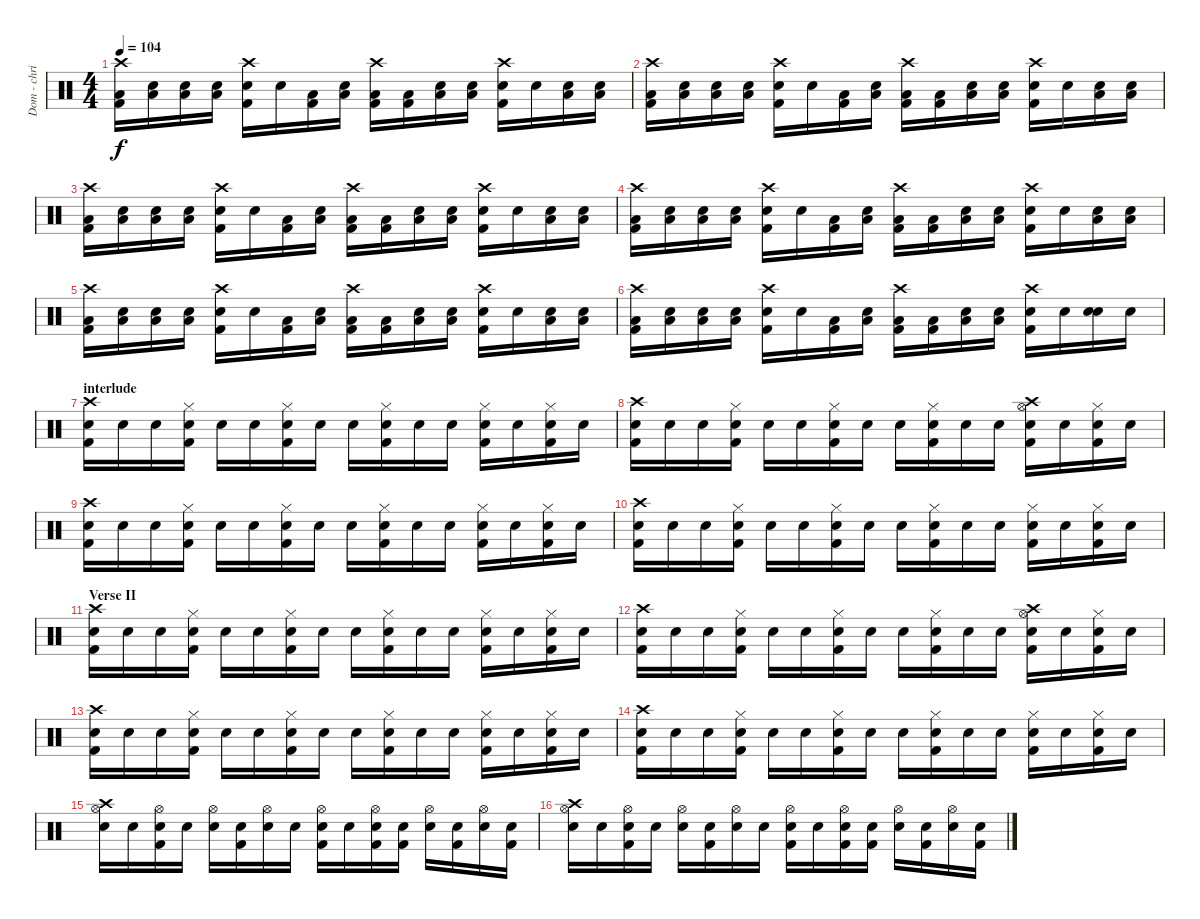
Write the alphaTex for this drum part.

\track ("Dom - chris" "Dom - chri") {instrument percussion}
\staff {score}
\articulation defaults
\ts (4 4)
\tempo 104
\clef neutral
\ks c
("Crash high (hit)" "Low Tom (hit)" "Kick (hit) 2").16{dy f} ("Low Floor Tom (hit)" "Snare (hit)"{x}).16 ("Low Tom (hit)" "Snare (hit)"{x}).16 ("Low Floor Tom (hit)" "Snare (hit)"{x}).16 ("Crash high (hit)" "Snare (hit) 2" "Kick (hit) 2").16 "Snare (hit)"{x}.16 ("Low Tom (hit)" "Kick (hit) 2").16 ("Low Floor Tom (hit)" "Snare (hit)"{x}).16 ("Crash high (hit)" "Low Tom (hit)" "Kick (hit) 2").16 ("Low Floor Tom (hit)" "Kick (hit) 2"{x}).16 ("Low Tom (hit)" "Snare (hit)"{x}).16 ("Low Floor Tom (hit)" "Snare (hit)"{x}).16 ("Crash high (hit)" "Snare (hit) 2" "Kick (hit) 2").16 "Snare (hit)"{x}.16 ("Low Tom (hit)" "Snare (hit)"{x}).16 ("Low Floor Tom (hit)" "Snare (hit)"{x}).16 |
("Crash high (hit)" "Low Tom (hit)" "Kick (hit) 2").16 ("Low Floor Tom (hit)" "Snare (hit)"{x}).16 ("Low Tom (hit)" "Snare (hit)"{x}).16 ("Low Floor Tom (hit)" "Snare (hit)"{x}).16 ("Crash high (hit)" "Snare (hit) 2" "Kick (hit) 2").16 "Snare (hit)"{x}.16 ("Low Tom (hit)" "Kick (hit) 2").16 ("Low Floor Tom (hit)" "Snare (hit)"{x}).16 ("Crash high (hit)" "Low Tom (hit)" "Kick (hit) 2").16 ("Low Floor Tom (hit)" "Kick (hit) 2"{x}).16 ("Low Tom (hit)" "Snare (hit)"{x}).16 ("Low Floor Tom (hit)" "Snare (hit)"{x}).16 ("Crash high (hit)" "Snare (hit) 2" "Kick (hit) 2").16 "Snare (hit)"{x}.16 ("Low Tom (hit)" "Snare (hit)"{x}).16 ("Low Floor Tom (hit)" "Snare (hit)"{x}).16 |
("Crash high (hit)" "Low Tom (hit)" "Kick (hit) 2").16 ("Low Floor Tom (hit)" "Snare (hit)"{x}).16 ("Low Tom (hit)" "Snare (hit)"{x}).16 ("Low Floor Tom (hit)" "Snare (hit)"{x}).16 ("Crash high (hit)" "Snare (hit) 2" "Kick (hit) 2").16 "Snare (hit)"{x}.16 ("Low Tom (hit)" "Kick (hit) 2").16 ("Low Floor Tom (hit)" "Snare (hit)"{x}).16 ("Crash high (hit)" "Low Tom (hit)" "Kick (hit) 2").16 ("Low Floor Tom (hit)" "Kick (hit) 2"{x}).16 ("Low Tom (hit)" "Snare (hit)"{x}).16 ("Low Floor Tom (hit)" "Snare (hit)"{x}).16 ("Crash high (hit)" "Snare (hit) 2" "Kick (hit) 2").16 "Snare (hit)"{x}.16 ("Low Tom (hit)" "Snare (hit)"{x}).16 ("Low Floor Tom (hit)" "Snare (hit)"{x}).16 |
("Crash high (hit)" "Low Tom (hit)" "Kick (hit) 2").16 ("Low Floor Tom (hit)" "Snare (hit)"{x}).16 ("Low Tom (hit)" "Snare (hit)"{x}).16 ("Low Floor Tom (hit)" "Snare (hit)"{x}).16 ("Crash high (hit)" "Snare (hit) 2" "Kick (hit) 2").16 "Snare (hit)"{x}.16 ("Low Tom (hit)" "Kick (hit) 2").16 ("Low Floor Tom (hit)" "Snare (hit)"{x}).16 ("Crash high (hit)" "Low Tom (hit)" "Kick (hit) 2").16 ("Low Floor Tom (hit)" "Kick (hit) 2"{x}).16 ("Low Tom (hit)" "Snare (hit)"{x}).16 ("Low Floor Tom (hit)" "Snare (hit)"{x}).16 ("Crash high (hit)" "Snare (hit) 2" "Kick (hit) 2").16 "Snare (hit)"{x}.16 ("Low Tom (hit)" "Snare (hit)"{x}).16 ("Low Floor Tom (hit)" "Snare (hit)"{x}).16 |
("Crash high (hit)" "Low Tom (hit)" "Kick (hit) 2").16 ("Low Floor Tom (hit)" "Snare (hit)"{x}).16 ("Low Tom (hit)" "Snare (hit)"{x}).16 ("Low Floor Tom (hit)" "Snare (hit)"{x}).16 ("Crash high (hit)" "Snare (hit) 2" "Kick (hit) 2").16 "Snare (hit)"{x}.16 ("Low Tom (hit)" "Kick (hit) 2").16 ("Low Floor Tom (hit)" "Snare (hit)"{x}).16 ("Crash high (hit)" "Low Tom (hit)" "Kick (hit) 2").16 ("Low Floor Tom (hit)" "Kick (hit) 2"{x}).16 ("Low Tom (hit)" "Snare (hit)"{x}).16 ("Low Floor Tom (hit)" "Snare (hit)"{x}).16 ("Crash high (hit)" "Snare (hit) 2" "Kick (hit) 2").16 "Snare (hit)"{x}.16 ("Low Tom (hit)" "Snare (hit)"{x}).16 ("Low Floor Tom (hit)" "Snare (hit)"{x}).16 |
("Crash high (hit)" "Low Tom (hit)" "Kick (hit) 2").16 ("Low Floor Tom (hit)" "Snare (hit)"{x}).16 ("Low Tom (hit)" "Snare (hit)"{x}).16 ("Low Floor Tom (hit)" "Snare (hit)"{x}).16 ("Crash high (hit)" "Snare (hit) 2" "Kick (hit) 2").16 "Snare (hit)"{x}.16 ("Low Tom (hit)" "Kick (hit) 2").16 ("Low Floor Tom (hit)" "Snare (hit)"{x}).16 ("Crash high (hit)" "Low Tom (hit)" "Kick (hit) 2").16 ("Low Floor Tom (hit)" "Kick (hit) 2"{x}).16 ("Low Tom (hit)" "Snare (hit)"{x}).16 ("Low Floor Tom (hit)" "Snare (hit)"{x}).16 ("Crash high (hit)" "Snare (hit) 2" "Kick (hit) 2").16 "Snare (hit)"{x}.16 ("Snare (hit) 2" "Snare (hit)"{x}).16 "Snare (hit)"{x}.16 |
\section ("" "interlude")
("Crash high (hit)" "Snare (hit) 2" "Kick (hit) 2").16 "Snare (hit) 2"{x}.16 "Snare (hit) 2"{x}.16 ("Hi-Hat (closed)" "Snare (hit) 2" "Kick (hit) 2").16 "Snare (hit) 2"{x}.16 "Snare (hit) 2"{x}.16 ("Hi-Hat (closed)" "Snare (hit) 2" "Kick (hit) 2").16 "Snare (hit) 2"{x}.16 "Snare (hit) 2"{x}.16 ("Hi-Hat (closed)" "Snare (hit) 2" "Kick (hit) 2").16 "Snare (hit) 2"{x}.16 "Snare (hit) 2"{x}.16 ("Hi-Hat (closed)" "Snare (hit) 2" "Kick (hit) 2").16 "Snare (hit) 2"{x}.16 ("Hi-Hat (closed)" "Snare (hit) 2" "Kick (hit) 2").16 "Snare (hit) 2"{x}.16 |
("Crash high (hit)" "Snare (hit) 2" "Kick (hit) 2").16 "Snare (hit) 2"{x}.16 "Snare (hit) 2"{x}.16 ("Hi-Hat (closed)" "Snare (hit) 2" "Kick (hit) 2").16 "Snare (hit) 2"{x}.16 "Snare (hit) 2"{x}.16 ("Hi-Hat (closed)" "Snare (hit) 2" "Kick (hit) 2").16 "Snare (hit) 2"{x}.16 "Snare (hit) 2"{x}.16 ("Hi-Hat (closed)" "Snare (hit) 2" "Kick (hit) 2").16 "Snare (hit) 2"{x}.16 "Snare (hit) 2"{x}.16 ("Hi-Hat (open)" "Crash high (hit)" "Snare (hit) 2" "Kick (hit) 2").16 "Snare (hit) 2"{x}.16 ("Hi-Hat (closed)" "Snare (hit) 2" "Kick (hit) 2").16 "Snare (hit) 2"{x}.16 |
("Crash high (hit)" "Snare (hit) 2" "Kick (hit) 2").16 "Snare (hit) 2"{x}.16 "Snare (hit) 2"{x}.16 ("Hi-Hat (closed)" "Snare (hit) 2" "Kick (hit) 2").16 "Snare (hit) 2"{x}.16 "Snare (hit) 2"{x}.16 ("Hi-Hat (closed)" "Snare (hit) 2" "Kick (hit) 2").16 "Snare (hit) 2"{x}.16 "Snare (hit) 2"{x}.16 ("Hi-Hat (closed)" "Snare (hit) 2" "Kick (hit) 2").16 "Snare (hit) 2"{x}.16 "Snare (hit) 2"{x}.16 ("Hi-Hat (closed)" "Snare (hit) 2" "Kick (hit) 2").16 "Snare (hit) 2"{x}.16 ("Hi-Hat (closed)" "Snare (hit) 2" "Kick (hit) 2").16 "Snare (hit) 2"{x}.16 |
("Crash high (hit)" "Snare (hit) 2" "Kick (hit) 2").16 "Snare (hit) 2"{x}.16 "Snare (hit) 2"{x}.16 ("Hi-Hat (closed)" "Snare (hit) 2" "Kick (hit) 2").16 "Snare (hit) 2"{x}.16 "Snare (hit) 2"{x}.16 ("Hi-Hat (closed)" "Snare (hit) 2" "Kick (hit) 2").16 "Snare (hit) 2"{x}.16 "Snare (hit) 2"{x}.16 ("Hi-Hat (closed)" "Snare (hit) 2" "Kick (hit) 2").16 "Snare (hit) 2"{x}.16 "Snare (hit) 2"{x}.16 ("Hi-Hat (closed)" "Snare (hit) 2" "Kick (hit) 2").16 "Snare (hit) 2"{x}.16 ("Hi-Hat (closed)" "Snare (hit) 2" "Kick (hit) 2").16 "Snare (hit) 2"{x}.16 |
\section ("" "Verse II")
("Crash high (hit)" "Snare (hit) 2" "Kick (hit) 2").16 "Snare (hit) 2"{x}.16 "Snare (hit) 2"{x}.16 ("Hi-Hat (closed)" "Snare (hit) 2" "Kick (hit) 2").16 "Snare (hit) 2"{x}.16 "Snare (hit) 2"{x}.16 ("Hi-Hat (closed)" "Snare (hit) 2" "Kick (hit) 2").16 "Snare (hit) 2"{x}.16 "Snare (hit) 2"{x}.16 ("Hi-Hat (closed)" "Snare (hit) 2" "Kick (hit) 2").16 "Snare (hit) 2"{x}.16 "Snare (hit) 2"{x}.16 ("Hi-Hat (closed)" "Snare (hit) 2" "Kick (hit) 2").16 "Snare (hit) 2"{x}.16 ("Hi-Hat (closed)" "Snare (hit) 2" "Kick (hit) 2").16 "Snare (hit) 2"{x}.16 |
("Crash high (hit)" "Snare (hit) 2" "Kick (hit) 2").16 "Snare (hit) 2"{x}.16 "Snare (hit) 2"{x}.16 ("Hi-Hat (closed)" "Snare (hit) 2" "Kick (hit) 2").16 "Snare (hit) 2"{x}.16 "Snare (hit) 2"{x}.16 ("Hi-Hat (closed)" "Snare (hit) 2" "Kick (hit) 2").16 "Snare (hit) 2"{x}.16 "Snare (hit) 2"{x}.16 ("Hi-Hat (closed)" "Snare (hit) 2" "Kick (hit) 2").16 "Snare (hit) 2"{x}.16 "Snare (hit) 2"{x}.16 ("Hi-Hat (open)" "Crash high (hit)" "Snare (hit) 2" "Kick (hit) 2").16 "Snare (hit) 2"{x}.16 ("Hi-Hat (closed)" "Snare (hit) 2" "Kick (hit) 2").16 "Snare (hit) 2"{x}.16 |
("Crash high (hit)" "Snare (hit) 2" "Kick (hit) 2").16 "Snare (hit) 2"{x}.16 "Snare (hit) 2"{x}.16 ("Hi-Hat (closed)" "Snare (hit) 2" "Kick (hit) 2").16 "Snare (hit) 2"{x}.16 "Snare (hit) 2"{x}.16 ("Hi-Hat (closed)" "Snare (hit) 2" "Kick (hit) 2").16 "Snare (hit) 2"{x}.16 "Snare (hit) 2"{x}.16 ("Hi-Hat (closed)" "Snare (hit) 2" "Kick (hit) 2").16 "Snare (hit) 2"{x}.16 "Snare (hit) 2"{x}.16 ("Hi-Hat (closed)" "Snare (hit) 2" "Kick (hit) 2").16 "Snare (hit) 2"{x}.16 ("Hi-Hat (closed)" "Snare (hit) 2" "Kick (hit) 2").16 "Snare (hit) 2"{x}.16 |
("Crash high (hit)" "Snare (hit) 2" "Kick (hit) 2").16 "Snare (hit) 2"{x}.16 "Snare (hit) 2"{x}.16 ("Hi-Hat (closed)" "Snare (hit) 2" "Kick (hit) 2").16 "Snare (hit) 2"{x}.16 "Snare (hit) 2"{x}.16 ("Hi-Hat (closed)" "Snare (hit) 2" "Kick (hit) 2").16 "Snare (hit) 2"{x}.16 "Snare (hit) 2"{x}.16 ("Hi-Hat (closed)" "Snare (hit) 2" "Kick (hit) 2").16 "Snare (hit) 2"{x}.16 "Snare (hit) 2"{x}.16 ("Hi-Hat (closed)" "Snare (hit) 2" "Kick (hit) 2").16 "Snare (hit) 2"{x}.16 ("Hi-Hat (closed)" "Snare (hit) 2" "Kick (hit) 2").16 "Snare (hit) 2"{x}.16 |
("Crash high (hit)" "Hi-Hat (open)" "Snare (hit) 2").16 "Snare (hit) 2"{x}.16 ("Hi-Hat (open)" "Snare (hit) 2"{x} "Kick (hit) 2").16 "Snare (hit) 2".16 ("Hi-Hat (open)" "Snare (hit) 2"{x}).16 ("Snare (hit) 2"{x} "Kick (hit) 2").16 ("Hi-Hat (open)" "Snare (hit) 2").16 "Snare (hit) 2"{x}.16 ("Hi-Hat (open)" "Snare (hit) 2"{x} "Kick (hit) 2").16 "Snare (hit) 2".16 ("Hi-Hat (open)" "Snare (hit) 2"{x} "Kick (hit) 2").16 ("Snare (hit) 2"{x} "Kick (hit) 2").16 ("Hi-Hat (open)" "Snare (hit) 2").16 ("Snare (hit) 2"{x} "Kick (hit) 2").16 ("Hi-Hat (open)" "Snare (hit) 2").16 ("Snare (hit) 2"{x} "Kick (hit) 2").16 |
("Crash high (hit)" "Hi-Hat (open)" "Snare (hit) 2").16 "Snare (hit) 2"{x}.16 ("Hi-Hat (open)" "Snare (hit) 2"{x} "Kick (hit) 2").16 "Snare (hit) 2".16 ("Hi-Hat (open)" "Snare (hit) 2"{x}).16 ("Snare (hit) 2"{x} "Kick (hit) 2").16 ("Hi-Hat (open)" "Snare (hit) 2").16 "Snare (hit) 2"{x}.16 ("Hi-Hat (open)" "Snare (hit) 2"{x} "Kick (hit) 2").16 "Snare (hit) 2".16 ("Hi-Hat (open)" "Snare (hit) 2"{x} "Kick (hit) 2").16 ("Snare (hit) 2"{x} "Kick (hit) 2").16 ("Hi-Hat (open)" "Snare (hit) 2").16 ("Snare (hit) 2"{x} "Kick (hit) 2").16 ("Hi-Hat (open)" "Snare (hit) 2").16 ("Snare (hit) 2"{x} "Kick (hit) 2").16
